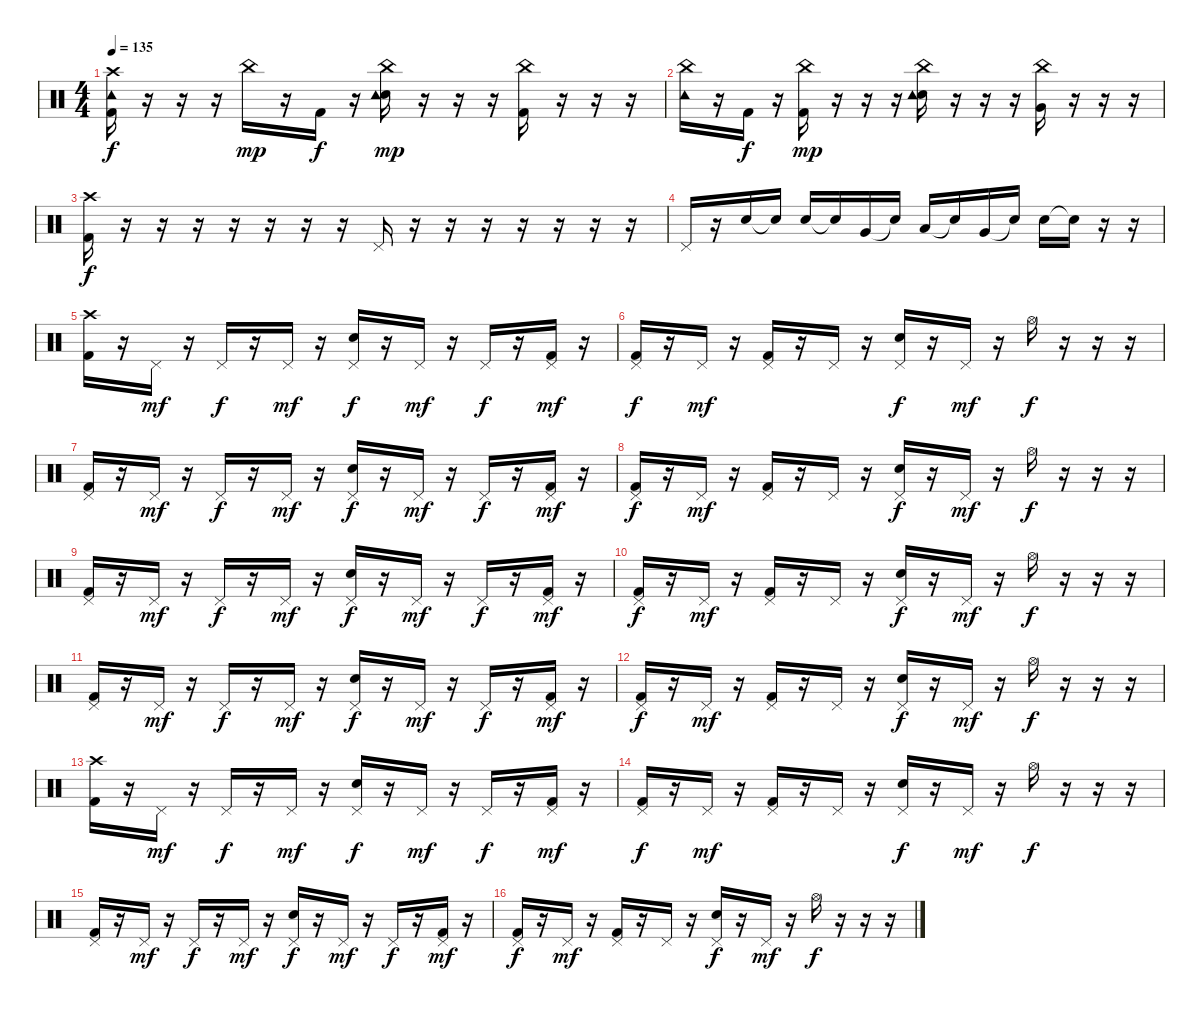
\track (" " " ") {instrument percussion}
\staff {score}
\articulation defaults
\ts (4 4)
\tempo 135
\clef neutral
\ks c
("Crash high (hit)" "Tambourine (hit)" "Kick (hit) 2").16{dy f} r.16 r.16 r.16 "China (hit)".16{dy mp} r.16 "Kick (hit) 2".16{dy f} r.16 ("China (hit)" "Electric Snare (hit)" "Tambourine (hit)").16{dy mp} r.16 r.16 r.16 ("China (hit)" "Kick (hit) 2").16 r.16 r.16 r.16 |
("China (hit)" "Tambourine (hit)").16 r.16 "Kick (hit) 2".16{dy f} r.16 ("China (hit)" "Kick (hit) 2").16{dy mp} r.16 r.16 r.16 ("China (hit)" "Electric Snare (hit)" "Tambourine (hit)").16 r.16 r.16 r.16 ("China (hit)" "Very Low Tom (hit)").16 r.16 r.16 r.16 |
("Crash high (hit)" "Kick (hit) 2").16{dy f} r.16 r.16 r.16 r.16 r.16 r.16 r.16 "Pedal Hi-Hat (hit)".16 r.16 r.16 r.16 r.16 r.16 r.16 r.16 |
"Pedal Hi-Hat (hit)".16 r.16 "Electric Snare (hit)".16 "Snare (hit)"{t}.16 "Electric Snare (hit)".16 "Snare (hit)"{t}.16 "Very Low Tom (hit)".16 "Snare (hit)"{t}.16 "Low Floor Tom (hit)".16 "Snare (hit)"{t}.16 "Very Low Tom (hit)".16 "Snare (hit)"{t}.16 "Electric Snare (hit)".16 "Snare (hit)"{t}.16 r.16 r.16 |
("Crash high (hit)" "Kick (hit) 2").16 r.16 "Pedal Hi-Hat (hit)".16{dy mf} r.16 "Pedal Hi-Hat (hit)".16{dy f} r.16 "Pedal Hi-Hat (hit)".16{dy mf} r.16 ("Pedal Hi-Hat (hit)" "Electric Snare (hit)").16{dy f} r.16 "Pedal Hi-Hat (hit)".16{dy mf} r.16 "Pedal Hi-Hat (hit)".16{dy f} r.16 ("Pedal Hi-Hat (hit)" "Kick (hit) 2").16{dy mf} r.16 |
("Pedal Hi-Hat (hit)" "Kick (hit) 2").16{dy f} r.16 "Pedal Hi-Hat (hit)".16{dy mf} r.16 ("Pedal Hi-Hat (hit)" "Kick (hit) 2").16 r.16 "Pedal Hi-Hat (hit)".16 r.16 ("Pedal Hi-Hat (hit)" "Electric Snare (hit)").16{dy f} r.16 "Pedal Hi-Hat (hit)".16{dy mf} r.16 "Hi-Hat (open)".16{dy f} r.16 r.16 r.16 |
("Pedal Hi-Hat (hit)" "Kick (hit) 2").16 r.16 "Pedal Hi-Hat (hit)".16{dy mf} r.16 "Pedal Hi-Hat (hit)".16{dy f} r.16 "Pedal Hi-Hat (hit)".16{dy mf} r.16 ("Pedal Hi-Hat (hit)" "Electric Snare (hit)").16{dy f} r.16 "Pedal Hi-Hat (hit)".16{dy mf} r.16 "Pedal Hi-Hat (hit)".16{dy f} r.16 ("Pedal Hi-Hat (hit)" "Kick (hit) 2").16{dy mf} r.16 |
("Pedal Hi-Hat (hit)" "Kick (hit) 2").16{dy f} r.16 "Pedal Hi-Hat (hit)".16{dy mf} r.16 ("Pedal Hi-Hat (hit)" "Kick (hit) 2").16 r.16 "Pedal Hi-Hat (hit)".16 r.16 ("Pedal Hi-Hat (hit)" "Electric Snare (hit)").16{dy f} r.16 "Pedal Hi-Hat (hit)".16{dy mf} r.16 "Hi-Hat (open)".16{dy f} r.16 r.16 r.16 |
("Pedal Hi-Hat (hit)" "Kick (hit) 2").16 r.16 "Pedal Hi-Hat (hit)".16{dy mf} r.16 "Pedal Hi-Hat (hit)".16{dy f} r.16 "Pedal Hi-Hat (hit)".16{dy mf} r.16 ("Pedal Hi-Hat (hit)" "Electric Snare (hit)").16{dy f} r.16 "Pedal Hi-Hat (hit)".16{dy mf} r.16 "Pedal Hi-Hat (hit)".16{dy f} r.16 ("Pedal Hi-Hat (hit)" "Kick (hit) 2").16{dy mf} r.16 |
("Pedal Hi-Hat (hit)" "Kick (hit) 2").16{dy f} r.16 "Pedal Hi-Hat (hit)".16{dy mf} r.16 ("Pedal Hi-Hat (hit)" "Kick (hit) 2").16 r.16 "Pedal Hi-Hat (hit)".16 r.16 ("Pedal Hi-Hat (hit)" "Electric Snare (hit)").16{dy f} r.16 "Pedal Hi-Hat (hit)".16{dy mf} r.16 "Hi-Hat (open)".16{dy f} r.16 r.16 r.16 |
("Pedal Hi-Hat (hit)" "Kick (hit) 2").16 r.16 "Pedal Hi-Hat (hit)".16{dy mf} r.16 "Pedal Hi-Hat (hit)".16{dy f} r.16 "Pedal Hi-Hat (hit)".16{dy mf} r.16 ("Pedal Hi-Hat (hit)" "Electric Snare (hit)").16{dy f} r.16 "Pedal Hi-Hat (hit)".16{dy mf} r.16 "Pedal Hi-Hat (hit)".16{dy f} r.16 ("Pedal Hi-Hat (hit)" "Kick (hit) 2").16{dy mf} r.16 |
("Pedal Hi-Hat (hit)" "Kick (hit) 2").16{dy f} r.16 "Pedal Hi-Hat (hit)".16{dy mf} r.16 ("Pedal Hi-Hat (hit)" "Kick (hit) 2").16 r.16 "Pedal Hi-Hat (hit)".16 r.16 ("Pedal Hi-Hat (hit)" "Electric Snare (hit)").16{dy f} r.16 "Pedal Hi-Hat (hit)".16{dy mf} r.16 "Hi-Hat (open)".16{dy f} r.16 r.16 r.16 |
("Crash high (hit)" "Kick (hit) 2").16 r.16 "Pedal Hi-Hat (hit)".16{dy mf} r.16 "Pedal Hi-Hat (hit)".16{dy f} r.16 "Pedal Hi-Hat (hit)".16{dy mf} r.16 ("Pedal Hi-Hat (hit)" "Electric Snare (hit)").16{dy f} r.16 "Pedal Hi-Hat (hit)".16{dy mf} r.16 "Pedal Hi-Hat (hit)".16{dy f} r.16 ("Pedal Hi-Hat (hit)" "Kick (hit) 2").16{dy mf} r.16 |
("Pedal Hi-Hat (hit)" "Kick (hit) 2").16{dy f} r.16 "Pedal Hi-Hat (hit)".16{dy mf} r.16 ("Pedal Hi-Hat (hit)" "Kick (hit) 2").16 r.16 "Pedal Hi-Hat (hit)".16 r.16 ("Pedal Hi-Hat (hit)" "Electric Snare (hit)").16{dy f} r.16 "Pedal Hi-Hat (hit)".16{dy mf} r.16 "Hi-Hat (open)".16{dy f} r.16 r.16 r.16 |
("Pedal Hi-Hat (hit)" "Kick (hit) 2").16 r.16 "Pedal Hi-Hat (hit)".16{dy mf} r.16 "Pedal Hi-Hat (hit)".16{dy f} r.16 "Pedal Hi-Hat (hit)".16{dy mf} r.16 ("Pedal Hi-Hat (hit)" "Electric Snare (hit)").16{dy f} r.16 "Pedal Hi-Hat (hit)".16{dy mf} r.16 "Pedal Hi-Hat (hit)".16{dy f} r.16 ("Pedal Hi-Hat (hit)" "Kick (hit) 2").16{dy mf} r.16 |
("Pedal Hi-Hat (hit)" "Kick (hit) 2").16{dy f} r.16 "Pedal Hi-Hat (hit)".16{dy mf} r.16 ("Pedal Hi-Hat (hit)" "Kick (hit) 2").16 r.16 "Pedal Hi-Hat (hit)".16 r.16 ("Pedal Hi-Hat (hit)" "Electric Snare (hit)").16{dy f} r.16 "Pedal Hi-Hat (hit)".16{dy mf} r.16 "Hi-Hat (open)".16{dy f} r.16 r.16 r.16
